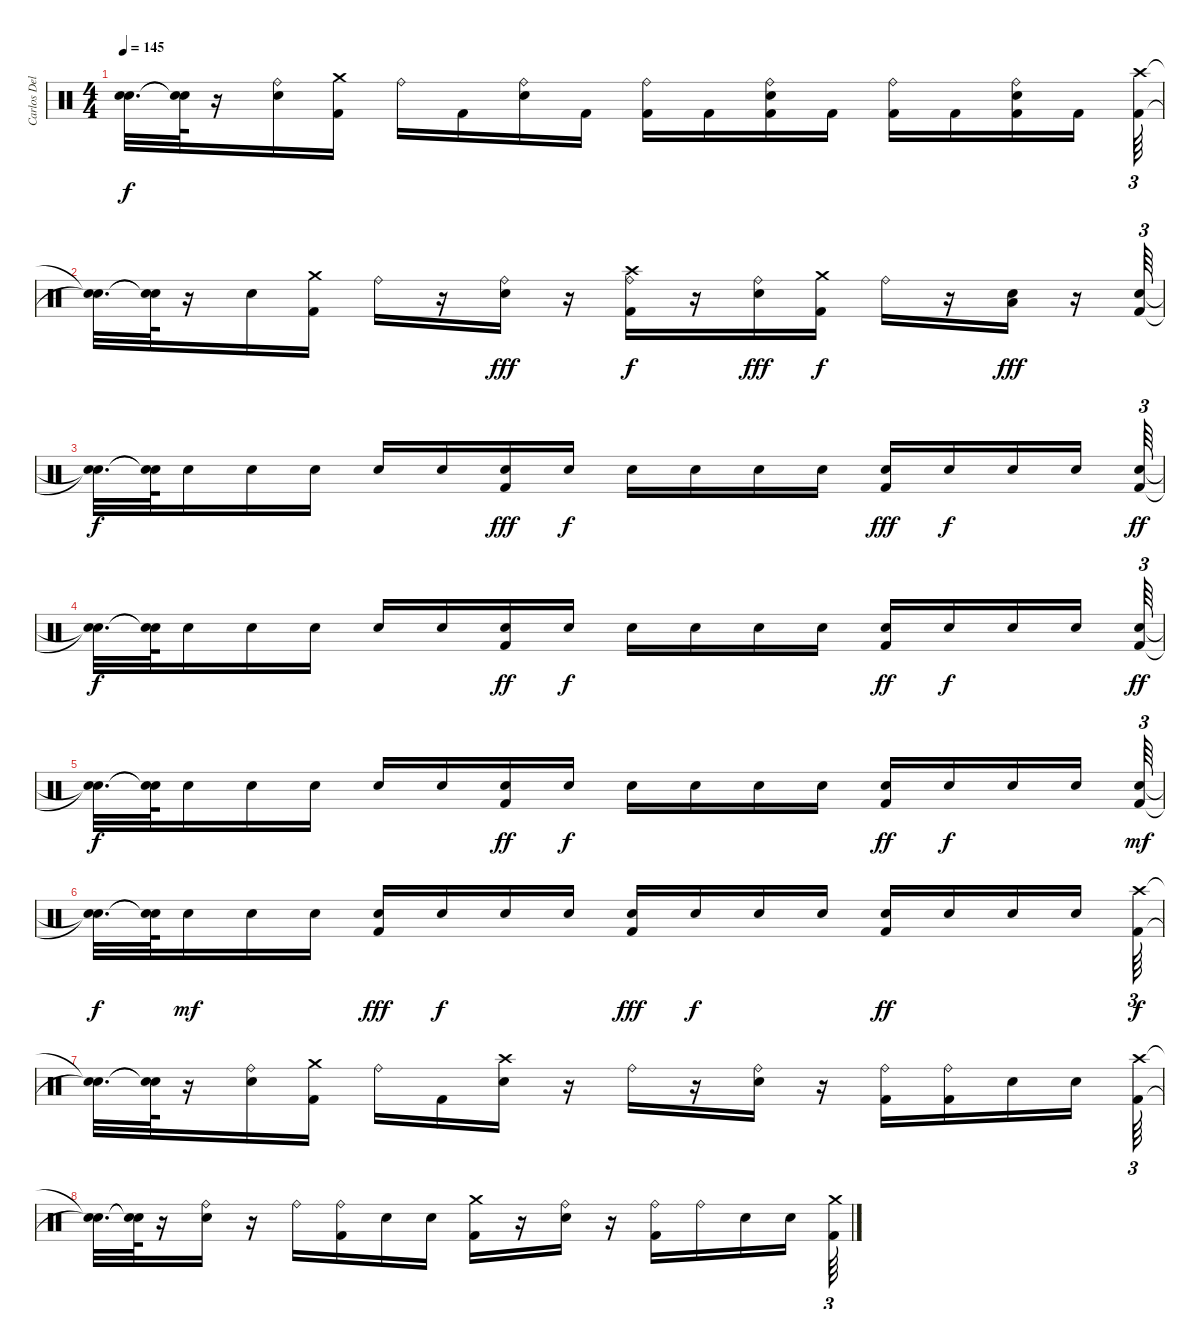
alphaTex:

\track ("Carlos Delgado" "Carlos Del") {instrument percussion}
\staff {score}
\articulation defaults
\ts (4 4)
\tempo 145
\clef neutral
\ks c
("Snare (hit)"{t} "Snare (hit)"{t}).32{d dy f} ("Snare (hit)"{t} "Snare (hit)"{t}).64 r.16 ("Ride (bell)" "Electric Snare (hit)").16 ("Crash medium (hit)" "Kick (hit) 2").16 "Ride (bell)".16 "Kick (hit) 2".16 ("Ride (bell)" "Electric Snare (hit)").16 "Kick (hit) 2".16 ("Kick (hit) 2" "Ride (bell)").16 "Kick (hit) 2".16 ("Kick (hit) 2" "Ride (bell)" "Electric Snare (hit)").16 "Kick (hit) 2".16 ("Kick (hit) 2" "Ride (bell)").16 "Kick (hit) 2".16 ("Kick (hit) 2" "Ride (bell)" "Electric Snare (hit)").16 "Kick (hit) 2".16 ("Crash high (hit)" "Kick (hit) 2").64{tu (3 2)} |
("Snare (hit)"{t} "Snare (hit)"{t}).32{d} ("Snare (hit)"{t} "Snare (hit)"{t}).64 r.16 "Electric Snare (hit)".16 ("Kick (hit) 2" "Crash medium (hit)").16 "Ride (bell)".16 r.16 ("Ride (bell)" "Electric Snare (hit)").16{dy fff} r.16 ("Crash high (hit)" "Kick (hit) 2" "Ride (bell)").16{dy f} r.16 ("Ride (bell)" "Electric Snare (hit)").16{dy fff} ("Crash medium (hit)" "Kick (hit) 2").16{dy f} "Ride (bell)".16 r.16 ("Low Floor Tom (hit)" "Electric Snare (hit)").16{dy fff} r.16 ("Electric Snare (hit)" "Kick (hit) 2").64{tu (3 2)} |
("Snare (hit)"{t} "Snare (hit)"{t}).32{d dy f} ("Snare (hit)"{t} "Snare (hit)"{t}).64 "Electric Snare (hit)".16 "Electric Snare (hit)".16 "Electric Snare (hit)".16 "Electric Snare (hit)".16 "Electric Snare (hit)".16 ("Electric Snare (hit)" "Kick (hit) 2").16{dy fff} "Electric Snare (hit)".16{dy f} "Electric Snare (hit)".16 "Electric Snare (hit)".16 "Electric Snare (hit)".16 "Electric Snare (hit)".16 ("Electric Snare (hit)" "Kick (hit) 2").16{dy fff} "Electric Snare (hit)".16{dy f} "Electric Snare (hit)".16 "Electric Snare (hit)".16 ("Kick (hit) 2" "Electric Snare (hit)").64{tu (3 2) dy ff} |
("Snare (hit)"{t} "Snare (hit)"{t}).32{d dy f} ("Snare (hit)"{t} "Snare (hit)"{t}).64 "Electric Snare (hit)".16 "Electric Snare (hit)".16 "Electric Snare (hit)".16 "Electric Snare (hit)".16 "Electric Snare (hit)".16 ("Kick (hit) 2" "Electric Snare (hit)").16{dy ff} "Electric Snare (hit)".16{dy f} "Electric Snare (hit)".16 "Electric Snare (hit)".16 "Electric Snare (hit)".16 "Electric Snare (hit)".16 ("Kick (hit) 2" "Electric Snare (hit)").16{dy ff} "Electric Snare (hit)".16{dy f} "Electric Snare (hit)".16 "Electric Snare (hit)".16 ("Kick (hit) 2" "Electric Snare (hit)").64{tu (3 2) dy ff} |
("Snare (hit)"{t} "Snare (hit)"{t}).32{d dy f} ("Snare (hit)"{t} "Snare (hit)"{t}).64 "Electric Snare (hit)".16 "Electric Snare (hit)".16 "Electric Snare (hit)".16 "Electric Snare (hit)".16 "Electric Snare (hit)".16 ("Kick (hit) 2" "Electric Snare (hit)").16{dy ff} "Electric Snare (hit)".16{dy f} "Electric Snare (hit)".16 "Electric Snare (hit)".16 "Electric Snare (hit)".16 "Electric Snare (hit)".16 ("Kick (hit) 2" "Electric Snare (hit)").16{dy ff} "Electric Snare (hit)".16{dy f} "Electric Snare (hit)".16 "Electric Snare (hit)".16 ("Kick (hit) 2" "Electric Snare (hit)").64{tu (3 2) dy mf} |
("Snare (hit)"{t} "Snare (hit)"{t}).32{d dy f} ("Snare (hit)"{t} "Snare (hit)"{t}).64 "Electric Snare (hit)".16{dy mf} "Electric Snare (hit)".16 "Electric Snare (hit)".16 ("Electric Snare (hit)" "Kick (hit) 2").16{dy fff} "Electric Snare (hit)".16{dy f} "Electric Snare (hit)".16 "Electric Snare (hit)".16 ("Kick (hit) 2" "Electric Snare (hit)").16{dy fff} "Electric Snare (hit)".16{dy f} "Electric Snare (hit)".16 "Electric Snare (hit)".16 ("Kick (hit) 2" "Electric Snare (hit)").16{dy ff} "Electric Snare (hit)".16 "Electric Snare (hit)".16 "Electric Snare (hit)".16 ("Crash high (hit)" "Kick (hit) 2").64{tu (3 2) dy f} |
("Snare (hit)"{t} "Snare (hit)"{t}).32{d} ("Snare (hit)"{t} "Snare (hit)"{t}).64 r.16 ("Ride (bell)" "Electric Snare (hit)").16 ("Crash medium (hit)" "Kick (hit) 2").16 "Ride (bell)".16 "Kick (hit) 2".16 ("Crash high (hit)" "Electric Snare (hit)").16 r.16 "Ride (bell)".16 r.16 ("Ride (bell)" "Electric Snare (hit)").16 r.16 ("Kick (hit) 2" "Ride (bell)").16 ("Kick (hit) 2" "Ride (bell)").16 "Electric Snare (hit)".16 "Electric Snare (hit)".16 ("Crash high (hit)" "Kick (hit) 2").64{tu (3 2)} |
("Snare (hit)"{t} "Snare (hit)"{t}).32{d} ("Snare (hit)"{t} "Snare (hit)"{t}).64 r.16 ("Ride (bell)" "Electric Snare (hit)").16 r.16 "Ride (bell)".16 ("Ride (bell)" "Kick (hit) 2").16 "Electric Snare (hit)".16 "Electric Snare (hit)".16 ("Crash medium (hit)" "Kick (hit) 2").16 r.16 ("Ride (bell)" "Electric Snare (hit)").16 r.16 ("Kick (hit) 2" "Ride (bell)").16 "Ride (bell)".16 "Electric Snare (hit)".16 "Electric Snare (hit)".16 ("Kick (hit) 2" "Crash medium (hit)").64{tu (3 2)}
